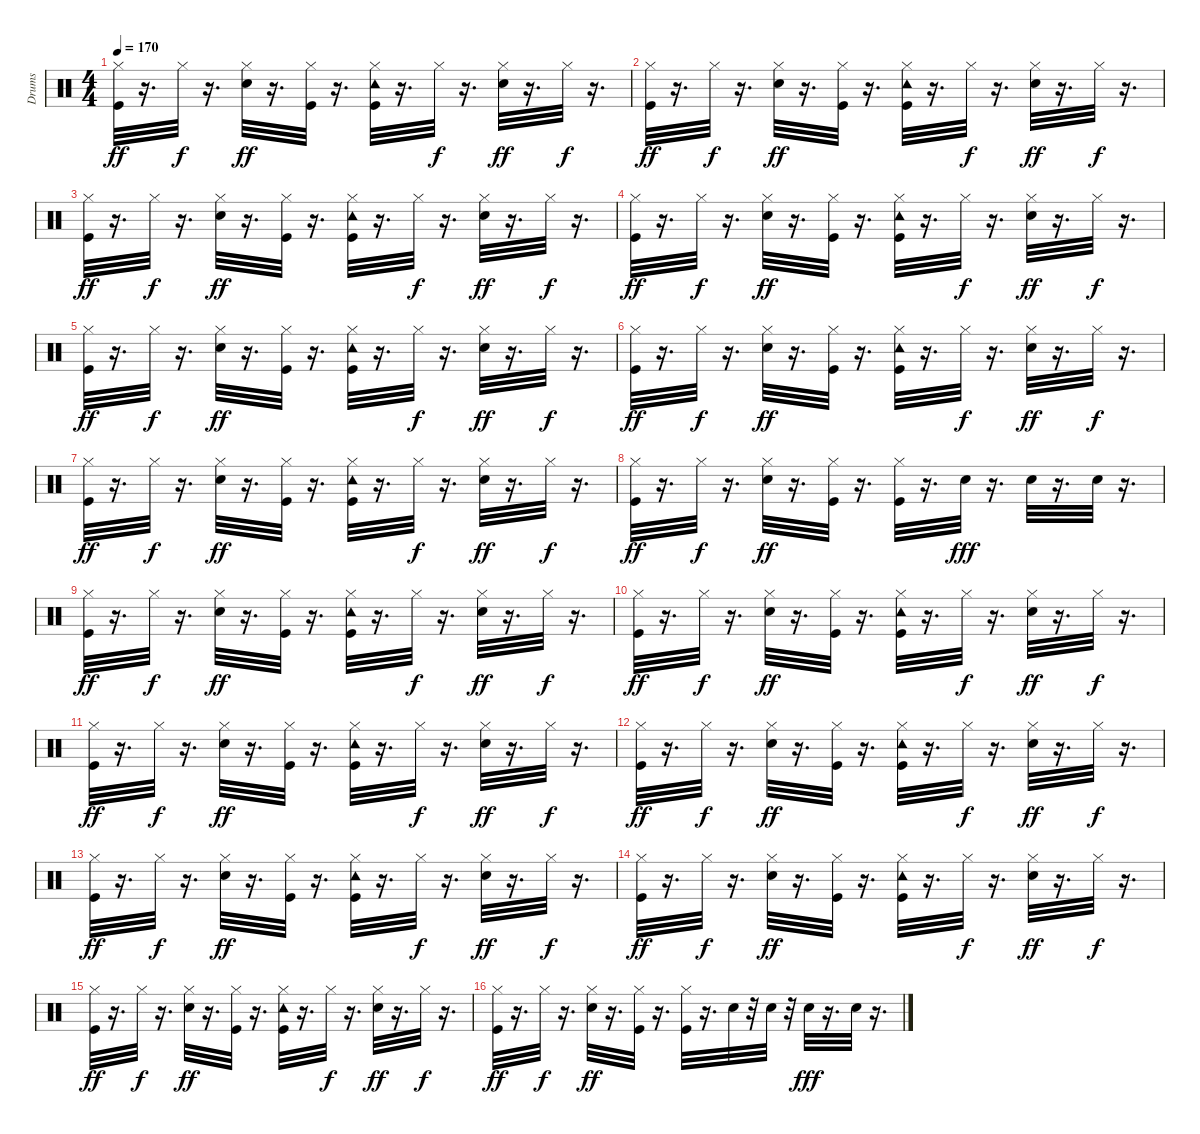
\track ("Drums" "Drums") {instrument percussion}
\staff {score}
\articulation defaults
\ts (4 4)
\tempo 170
\clef neutral
\ks c
("Kick (hit)" "Hi-Hat (closed)").32{dy ff} r.16{d} "Hi-Hat (closed)".32{dy f} r.16{d} ("Snare (hit) 2" "Hi-Hat (closed)").32{dy ff} r.16{d} ("Hi-Hat (closed)" "Kick (hit)").32 r.16{d} ("Kick (hit)" "Tambourine (hit)" "Hi-Hat (closed)").32 r.16{d} "Hi-Hat (closed)".32{dy f} r.16{d} ("Snare (hit) 2" "Hi-Hat (closed)").32{dy ff} r.16{d} "Hi-Hat (closed)".32{dy f} r.16{d} |
("Kick (hit)" "Hi-Hat (closed)").32{dy ff} r.16{d} "Hi-Hat (closed)".32{dy f} r.16{d} ("Snare (hit) 2" "Hi-Hat (closed)").32{dy ff} r.16{d} ("Hi-Hat (closed)" "Kick (hit)").32 r.16{d} ("Kick (hit)" "Tambourine (hit)" "Hi-Hat (closed)").32 r.16{d} "Hi-Hat (closed)".32{dy f} r.16{d} ("Snare (hit) 2" "Hi-Hat (closed)").32{dy ff} r.16{d} "Hi-Hat (closed)".32{dy f} r.16{d} |
("Kick (hit)" "Hi-Hat (closed)").32{dy ff} r.16{d} "Hi-Hat (closed)".32{dy f} r.16{d} ("Snare (hit) 2" "Hi-Hat (closed)").32{dy ff} r.16{d} ("Hi-Hat (closed)" "Kick (hit)").32 r.16{d} ("Kick (hit)" "Tambourine (hit)" "Hi-Hat (closed)").32 r.16{d} "Hi-Hat (closed)".32{dy f} r.16{d} ("Snare (hit) 2" "Hi-Hat (closed)").32{dy ff} r.16{d} "Hi-Hat (closed)".32{dy f} r.16{d} |
("Kick (hit)" "Hi-Hat (closed)").32{dy ff} r.16{d} "Hi-Hat (closed)".32{dy f} r.16{d} ("Snare (hit) 2" "Hi-Hat (closed)").32{dy ff} r.16{d} ("Hi-Hat (closed)" "Kick (hit)").32 r.16{d} ("Kick (hit)" "Tambourine (hit)" "Hi-Hat (closed)").32 r.16{d} "Hi-Hat (closed)".32{dy f} r.16{d} ("Snare (hit) 2" "Hi-Hat (closed)").32{dy ff} r.16{d} "Hi-Hat (closed)".32{dy f} r.16{d} |
("Kick (hit)" "Hi-Hat (closed)").32{dy ff} r.16{d} "Hi-Hat (closed)".32{dy f} r.16{d} ("Snare (hit) 2" "Hi-Hat (closed)").32{dy ff} r.16{d} ("Hi-Hat (closed)" "Kick (hit)").32 r.16{d} ("Kick (hit)" "Tambourine (hit)" "Hi-Hat (closed)").32 r.16{d} "Hi-Hat (closed)".32{dy f} r.16{d} ("Snare (hit) 2" "Hi-Hat (closed)").32{dy ff} r.16{d} "Hi-Hat (closed)".32{dy f} r.16{d} |
("Kick (hit)" "Hi-Hat (closed)").32{dy ff} r.16{d} "Hi-Hat (closed)".32{dy f} r.16{d} ("Snare (hit) 2" "Hi-Hat (closed)").32{dy ff} r.16{d} ("Hi-Hat (closed)" "Kick (hit)").32 r.16{d} ("Kick (hit)" "Tambourine (hit)" "Hi-Hat (closed)").32 r.16{d} "Hi-Hat (closed)".32{dy f} r.16{d} ("Snare (hit) 2" "Hi-Hat (closed)").32{dy ff} r.16{d} "Hi-Hat (closed)".32{dy f} r.16{d} |
("Kick (hit)" "Hi-Hat (closed)").32{dy ff} r.16{d} "Hi-Hat (closed)".32{dy f} r.16{d} ("Snare (hit) 2" "Hi-Hat (closed)").32{dy ff} r.16{d} ("Hi-Hat (closed)" "Kick (hit)").32 r.16{d} ("Kick (hit)" "Tambourine (hit)" "Hi-Hat (closed)").32 r.16{d} "Hi-Hat (closed)".32{dy f} r.16{d} ("Snare (hit) 2" "Hi-Hat (closed)").32{dy ff} r.16{d} "Hi-Hat (closed)".32{dy f} r.16{d} |
("Kick (hit)" "Hi-Hat (closed)").32{dy ff} r.16{d} "Hi-Hat (closed)".32{dy f} r.16{d} ("Snare (hit) 2" "Hi-Hat (closed)").32{dy ff} r.16{d} ("Hi-Hat (closed)" "Kick (hit)").32 r.16{d} ("Kick (hit)" "Hi-Hat (closed)").32 r.16{d} "Snare (hit) 2".32{dy fff} r.16{d} "Snare (hit) 2".32 r.16{d} "Snare (hit) 2".32 r.16{d} |
("Kick (hit)" "Hi-Hat (closed)").32{dy ff volume 8} r.16{d} "Hi-Hat (closed)".32{dy f} r.16{d} ("Snare (hit) 2" "Hi-Hat (closed)").32{dy ff} r.16{d} ("Hi-Hat (closed)" "Kick (hit)").32 r.16{d} ("Kick (hit)" "Tambourine (hit)" "Hi-Hat (closed)").32 r.16{d} "Hi-Hat (closed)".32{dy f} r.16{d} ("Snare (hit) 2" "Hi-Hat (closed)").32{dy ff} r.16{d} "Hi-Hat (closed)".32{dy f} r.16{d} |
("Kick (hit)" "Hi-Hat (closed)").32{dy ff} r.16{d} "Hi-Hat (closed)".32{dy f} r.16{d} ("Snare (hit) 2" "Hi-Hat (closed)").32{dy ff} r.16{d} ("Hi-Hat (closed)" "Kick (hit)").32 r.16{d} ("Kick (hit)" "Tambourine (hit)" "Hi-Hat (closed)").32 r.16{d} "Hi-Hat (closed)".32{dy f} r.16{d} ("Snare (hit) 2" "Hi-Hat (closed)").32{dy ff} r.16{d} "Hi-Hat (closed)".32{dy f} r.16{d} |
("Kick (hit)" "Hi-Hat (closed)").32{dy ff} r.16{d} "Hi-Hat (closed)".32{dy f} r.16{d} ("Snare (hit) 2" "Hi-Hat (closed)").32{dy ff} r.16{d} ("Hi-Hat (closed)" "Kick (hit)").32 r.16{d} ("Kick (hit)" "Tambourine (hit)" "Hi-Hat (closed)").32 r.16{d} "Hi-Hat (closed)".32{dy f} r.16{d} ("Snare (hit) 2" "Hi-Hat (closed)").32{dy ff} r.16{d} "Hi-Hat (closed)".32{dy f} r.16{d} |
("Kick (hit)" "Hi-Hat (closed)").32{dy ff} r.16{d} "Hi-Hat (closed)".32{dy f} r.16{d} ("Snare (hit) 2" "Hi-Hat (closed)").32{dy ff} r.16{d} ("Hi-Hat (closed)" "Kick (hit)").32 r.16{d} ("Kick (hit)" "Tambourine (hit)" "Hi-Hat (closed)").32 r.16{d} "Hi-Hat (closed)".32{dy f} r.16{d} ("Snare (hit) 2" "Hi-Hat (closed)").32{dy ff} r.16{d} "Hi-Hat (closed)".32{dy f} r.16{d} |
("Kick (hit)" "Hi-Hat (closed)").32{dy ff volume 3} r.16{d} "Hi-Hat (closed)".32{dy f} r.16{d} ("Snare (hit) 2" "Hi-Hat (closed)").32{dy ff} r.16{d} ("Hi-Hat (closed)" "Kick (hit)").32 r.16{d} ("Kick (hit)" "Tambourine (hit)" "Hi-Hat (closed)").32 r.16{d} "Hi-Hat (closed)".32{dy f} r.16{d} ("Snare (hit) 2" "Hi-Hat (closed)").32{dy ff} r.16{d} "Hi-Hat (closed)".32{dy f} r.16{d} |
("Kick (hit)" "Hi-Hat (closed)").32{dy ff} r.16{d} "Hi-Hat (closed)".32{dy f} r.16{d} ("Snare (hit) 2" "Hi-Hat (closed)").32{dy ff} r.16{d} ("Hi-Hat (closed)" "Kick (hit)").32 r.16{d} ("Kick (hit)" "Tambourine (hit)" "Hi-Hat (closed)").32 r.16{d} "Hi-Hat (closed)".32{dy f} r.16{d} ("Snare (hit) 2" "Hi-Hat (closed)").32{dy ff} r.16{d} "Hi-Hat (closed)".32{dy f} r.16{d} |
("Kick (hit)" "Hi-Hat (closed)").32{dy ff} r.16{d} "Hi-Hat (closed)".32{dy f} r.16{d} ("Snare (hit) 2" "Hi-Hat (closed)").32{dy ff} r.16{d} ("Hi-Hat (closed)" "Kick (hit)").32 r.16{d} ("Kick (hit)" "Tambourine (hit)" "Hi-Hat (closed)").32 r.16{d} "Hi-Hat (closed)".32{dy f} r.16{d} ("Snare (hit) 2" "Hi-Hat (closed)").32{dy ff} r.16{d} "Hi-Hat (closed)".32{dy f} r.16{d} |
("Kick (hit)" "Hi-Hat (closed)").32{dy ff volume 0} r.16{d} "Hi-Hat (closed)".32{dy f} r.16{d} ("Snare (hit) 2" "Hi-Hat (closed)").32{dy ff} r.16{d} ("Hi-Hat (closed)" "Kick (hit)").32 r.16{d} ("Kick (hit)" "Hi-Hat (closed)").32 r.16{d} "Snare (hit) 2".32 r.32 "Snare (hit) 2".32 r.32 "Snare (hit) 2".32{dy fff} r.16{d} "Snare (hit) 2".32 r.16{d}
